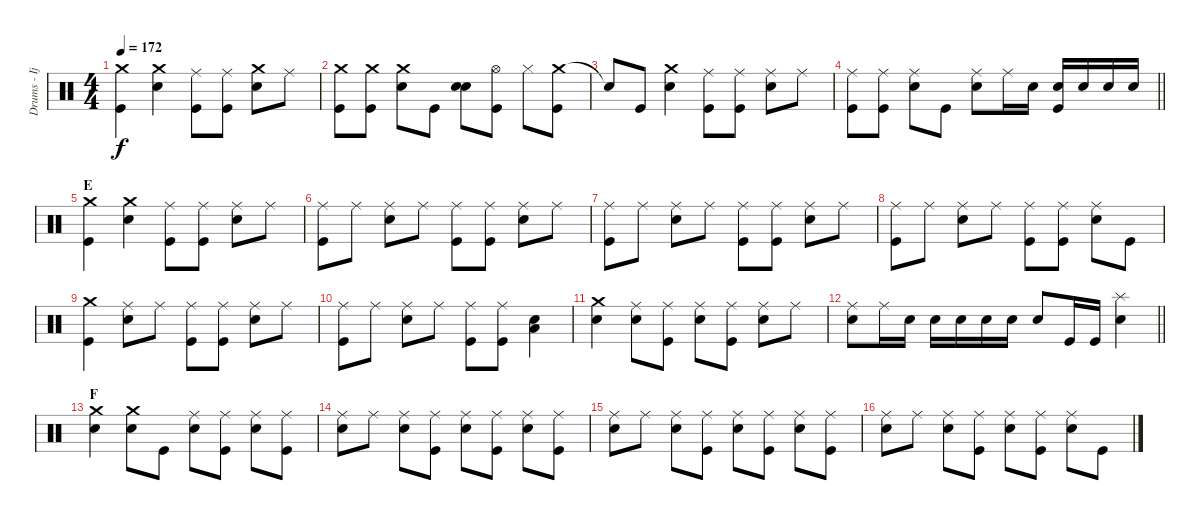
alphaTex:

\track ("Drums - Ijichi" "Drums - Ij") {instrument percussion}
\staff {score}
\articulation defaults
\ts (4 4)
\tempo 172
\clef neutral
\ks c
("Crash medium (hit)" "Kick (hit)").4{dy f} ("Crash medium (hit)" "Electric Snare (hit)").4 ("Ride (middle)" "Kick (hit)").8 ("Ride (middle)" "Kick (hit)").8 ("Crash medium (hit)" "Electric Snare (hit)").8 "Ride (middle)".8 |
("Crash medium (hit)" "Kick (hit)").8 ("Crash medium (hit)" "Kick (hit)").8 ("Crash medium (hit)" "Electric Snare (hit)").8 "Kick (hit)".8 ("Electric Snare (hit)" "Electric Snare (hit)").8 ("Hi-Hat (open)" "Kick (hit)").8 "Hi-Hat (closed)".8 ("Crash medium (hit)" "Kick (hit)").8 |
"Snare (hit)"{t}.8 "Kick (hit)".8 ("Crash medium (hit)" "Electric Snare (hit)").4 ("Ride (middle)" "Kick (hit)").8 ("Ride (middle)" "Kick (hit)").8 ("Ride (middle)" "Electric Snare (hit)").8 "Ride (middle)".8 |
\barLineRight lightlight
("Ride (middle)" "Kick (hit)").8 ("Ride (middle)" "Kick (hit)").8 ("Ride (middle)" "Electric Snare (hit)").8 "Kick (hit)".8 ("Ride (middle)" "Electric Snare (hit)").8 "Ride (middle)".16 "Electric Snare (hit)".16 ("Electric Snare (hit)" "Kick (hit)").16 "Electric Snare (hit)".16 "Electric Snare (hit)".16 "Electric Snare (hit)".16 |
\section ("" "E")
("Crash medium (hit)" "Kick (hit)").4 ("Crash medium (hit)" "Electric Snare (hit)").4 ("Ride (middle)" "Kick (hit)").8 ("Ride (middle)" "Kick (hit)").8 ("Ride (middle)" "Electric Snare (hit)").8 "Ride (middle)".8 |
("Ride (middle)" "Kick (hit)").8 "Ride (middle)".8 ("Ride (middle)" "Electric Snare (hit)").8 "Ride (middle)".8 ("Ride (middle)" "Kick (hit)").8 ("Ride (middle)" "Kick (hit)").8 ("Ride (middle)" "Electric Snare (hit)").8 "Ride (middle)".8 |
("Ride (middle)" "Kick (hit)").8 "Ride (middle)".8 ("Ride (middle)" "Electric Snare (hit)").8 "Ride (middle)".8 ("Ride (middle)" "Kick (hit)").8 ("Ride (middle)" "Kick (hit)").8 ("Ride (middle)" "Electric Snare (hit)").8 "Ride (middle)".8 |
("Ride (middle)" "Kick (hit)").8 "Ride (middle)".8 ("Ride (middle)" "Electric Snare (hit)").8 "Ride (middle)".8 ("Ride (middle)" "Kick (hit)").8 ("Ride (middle)" "Kick (hit)").8 ("Ride (middle)" "Electric Snare (hit)").8 "Kick (hit)".8 |
("Crash medium (hit)" "Kick (hit)").4 ("Ride (middle)" "Electric Snare (hit)").8 "Ride (middle)".8 ("Ride (middle)" "Kick (hit)").8 ("Ride (middle)" "Kick (hit)").8 ("Ride (middle)" "Electric Snare (hit)").8 "Ride (middle)".8 |
("Ride (middle)" "Kick (hit)").8 "Ride (middle)".8 ("Ride (middle)" "Electric Snare (hit)").8 "Ride (middle)".8 ("Ride (middle)" "Kick (hit)").8 ("Ride (middle)" "Kick (hit)").8 ("Electric Snare (hit)" "Low Tom (hit)").4 |
("Crash medium (hit)" "Electric Snare (hit)").4 ("Ride (middle)" "Electric Snare (hit)").8 ("Ride (middle)" "Kick (hit)").8 ("Ride (middle)" "Electric Snare (hit)").8 ("Ride (middle)" "Kick (hit)").8 ("Ride (middle)" "Electric Snare (hit)").8 "Ride (middle)".8 |
\barLineRight lightlight
("Ride (middle)" "Electric Snare (hit)").8 "Ride (middle)".16 "Electric Snare (hit)".16 "Electric Snare (hit)".16 "Electric Snare (hit)".16 "Electric Snare (hit)".16 "Electric Snare (hit)".16 "Electric Snare (hit)".8 "Kick (hit)".16 "Kick (hit)".16 ("Splash (hit)" "Electric Snare (hit)").4 |
\section ("" "F")
("Crash medium (hit)" "Electric Snare (hit)").4 ("Crash medium (hit)" "Electric Snare (hit)").8 "Kick (hit)".8 ("Ride (middle)" "Electric Snare (hit)").8 ("Ride (middle)" "Kick (hit)").8 ("Ride (middle)" "Electric Snare (hit)").8 ("Ride (middle)" "Kick (hit)").8 |
("Ride (middle)" "Electric Snare (hit)").8 "Ride (middle)".8 ("Ride (middle)" "Electric Snare (hit)").8 ("Ride (middle)" "Kick (hit)").8 ("Ride (middle)" "Electric Snare (hit)").8 ("Ride (middle)" "Kick (hit)").8 ("Ride (middle)" "Electric Snare (hit)").8 ("Ride (middle)" "Kick (hit)").8 |
("Ride (middle)" "Electric Snare (hit)").8 "Ride (middle)".8 ("Ride (middle)" "Electric Snare (hit)").8 ("Ride (middle)" "Kick (hit)").8 ("Ride (middle)" "Electric Snare (hit)").8 ("Ride (middle)" "Kick (hit)").8 ("Ride (middle)" "Electric Snare (hit)").8 ("Ride (middle)" "Kick (hit)").8 |
("Ride (middle)" "Electric Snare (hit)").8 "Ride (middle)".8 ("Ride (middle)" "Electric Snare (hit)").8 ("Ride (middle)" "Kick (hit)").8 ("Ride (middle)" "Electric Snare (hit)").8 ("Ride (middle)" "Kick (hit)").8 ("Ride (middle)" "Electric Snare (hit)").8 "Kick (hit)".8
